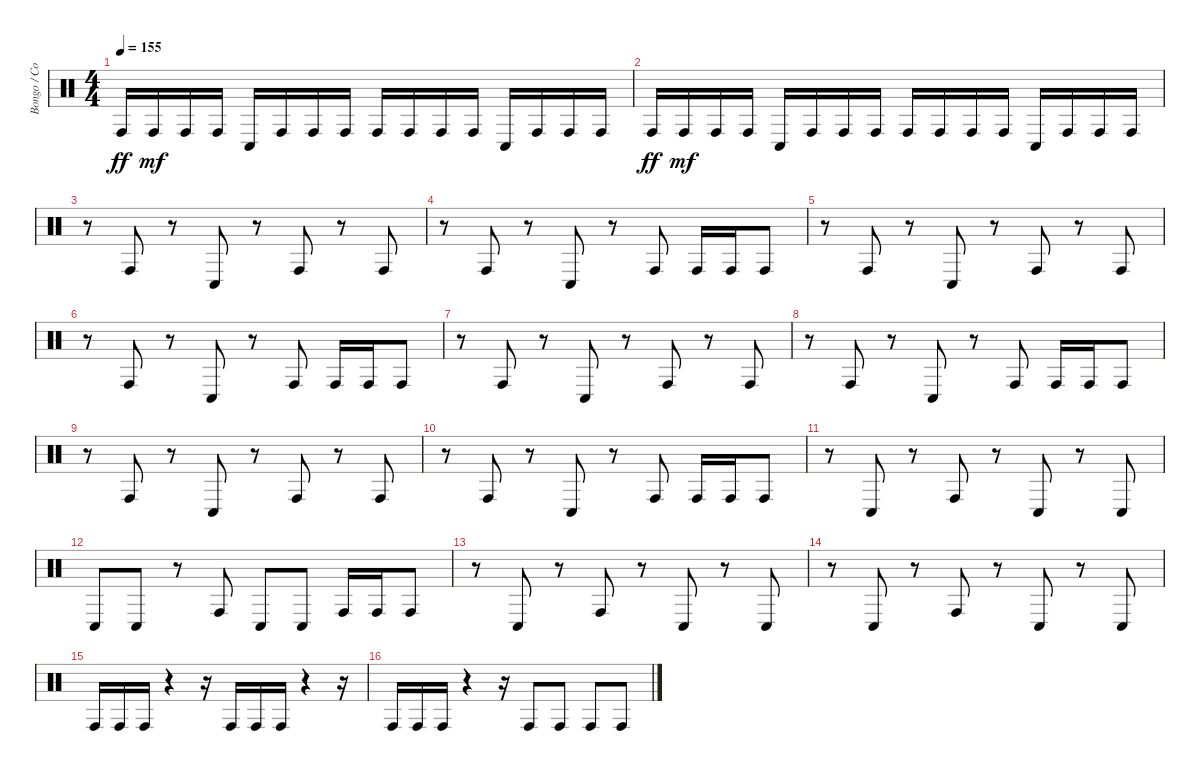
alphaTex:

\track ("Bongo / Conga" "Bongo / Co") {instrument percussion}
\staff {score}
\articulation defaults
\ts (4 4)
\tempo 155
\clef neutral
\ks c "Conga high (hit)".16{dy ff} "Conga high (hit)".16{dy mf} "Conga high (hit)".16 "Conga high (hit)".16 "Conga low (hit)".16 "Conga high (hit)".16 "Conga high (hit)".16 "Conga high (hit)".16 "Conga high (hit)".16 "Conga high (hit)".16 "Conga high (hit)".16 "Conga high (hit)".16 "Conga low (hit)".16 "Conga high (hit)".16 "Conga high (hit)".16 "Conga high (hit)".16
|
"Conga high (hit)".16{dy ff} "Conga high (hit)".16{dy mf} "Conga high (hit)".16 "Conga high (hit)".16 "Conga low (hit)".16 "Conga high (hit)".16 "Conga high (hit)".16 "Conga high (hit)".16 "Conga high (hit)".16 "Conga high (hit)".16 "Conga high (hit)".16 "Conga high (hit)".16 "Conga low (hit)".16 "Conga high (hit)".16 "Conga high (hit)".16 "Conga high (hit)".16 |
r.8 "Conga high (hit)".8 r.8 "Conga low (hit)".8 r.8 "Conga high (hit)".8 r.8 "Conga high (hit)".8 |
r.8 "Conga high (hit)".8 r.8 "Conga low (hit)".8 r.8 "Conga high (hit)".8 "Conga high (hit)".16 "Conga high (hit)".16 "Conga high (hit)".8 |
r.8 "Conga high (hit)".8 r.8 "Conga low (hit)".8 r.8 "Conga high (hit)".8 r.8 "Conga high (hit)".8 |
r.8 "Conga high (hit)".8 r.8 "Conga low (hit)".8 r.8 "Conga high (hit)".8 "Conga high (hit)".16 "Conga high (hit)".16 "Conga high (hit)".8 |
r.8 "Conga high (hit)".8 r.8 "Conga low (hit)".8 r.8 "Conga high (hit)".8 r.8 "Conga high (hit)".8 |
r.8 "Conga high (hit)".8 r.8 "Conga low (hit)".8 r.8 "Conga high (hit)".8 "Conga high (hit)".16 "Conga high (hit)".16 "Conga high (hit)".8 |
r.8 "Conga high (hit)".8 r.8 "Conga low (hit)".8 r.8 "Conga high (hit)".8 r.8 "Conga high (hit)".8 |
r.8 "Conga high (hit)".8 r.8 "Conga low (hit)".8 r.8 "Conga high (hit)".8 "Conga high (hit)".16 "Conga high (hit)".16 "Conga high (hit)".8 |
r.8 "Conga low (hit)".8 r.8 "Conga high (hit)".8 r.8 "Conga low (hit)".8 r.8 "Conga low (hit)".8 |
"Conga low (hit)".8 "Conga low (hit)".8 r.8 "Conga high (hit)".8 "Conga low (hit)".8 "Conga low (hit)".8 "Conga high (hit)".16 "Conga high (hit)".16 "Conga high (hit)".8 |
r.8 "Conga low (hit)".8 r.8 "Conga high (hit)".8 r.8 "Conga low (hit)".8 r.8 "Conga low (hit)".8 |
r.8 "Conga low (hit)".8 r.8 "Conga high (hit)".8 r.8 "Conga low (hit)".8 r.8 "Conga low (hit)".8 |
"Conga high (hit)".16 "Conga high (hit)".16 "Conga high (hit)".16 r.4 r.16 "Conga high (hit)".16 "Conga high (hit)".16 "Conga high (hit)".16 r.4 r.16 |
"Conga high (hit)".16 "Conga high (hit)".16 "Conga high (hit)".16 r.4 r.16 "Conga high (hit)".8 "Conga high (hit)".8 "Conga high (hit)".8 "Conga high (hit)".8
